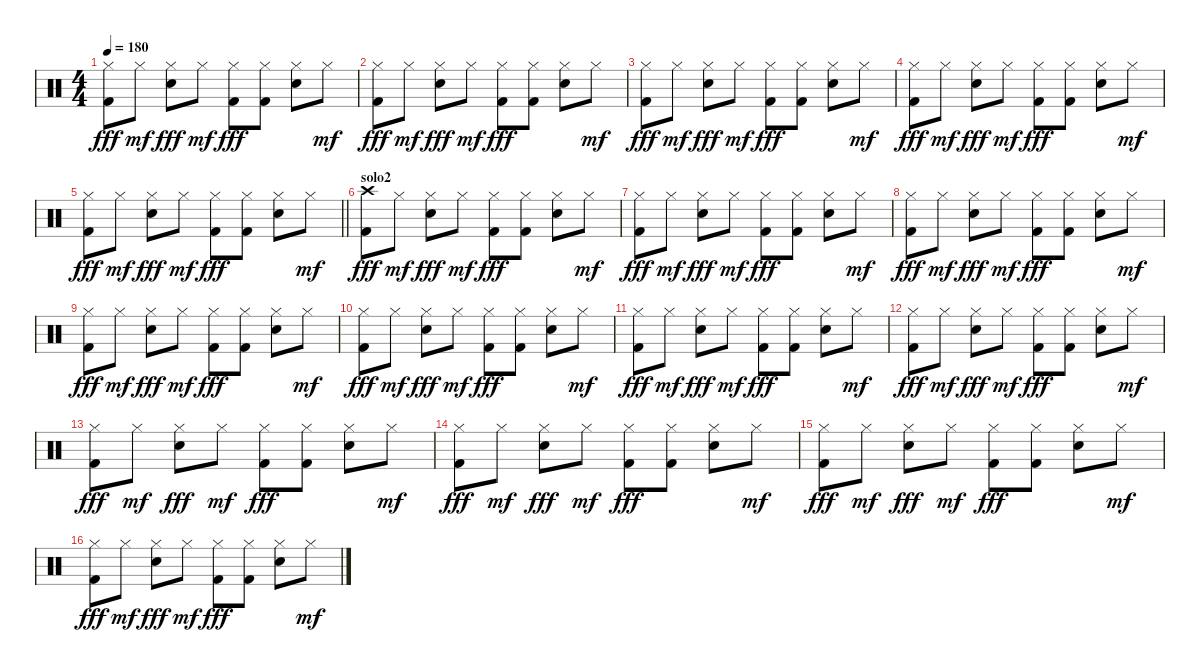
\track "" {instrument percussion}
\staff {score}
\articulation defaults
\ts (4 4)
\tempo 180
\clef neutral
\ks c
("Hi-Hat (closed)" "Kick (hit) 2").8{dy fff} "Hi-Hat (closed)".8{dy mf} ("Hi-Hat (closed)" "Snare (hit) 2").8{dy fff} "Hi-Hat (closed)".8{dy mf} ("Hi-Hat (closed)" "Kick (hit) 2").8{dy fff} ("Hi-Hat (closed)" "Kick (hit) 2").8 ("Hi-Hat (closed)" "Snare (hit) 2").8 "Hi-Hat (closed)".8{dy mf} |
("Hi-Hat (closed)" "Kick (hit) 2").8{dy fff} "Hi-Hat (closed)".8{dy mf} ("Hi-Hat (closed)" "Snare (hit) 2").8{dy fff} "Hi-Hat (closed)".8{dy mf} ("Hi-Hat (closed)" "Kick (hit) 2").8{dy fff} ("Hi-Hat (closed)" "Kick (hit) 2").8 ("Hi-Hat (closed)" "Snare (hit) 2").8 "Hi-Hat (closed)".8{dy mf} |
("Hi-Hat (closed)" "Kick (hit) 2").8{dy fff} "Hi-Hat (closed)".8{dy mf} ("Hi-Hat (closed)" "Snare (hit) 2").8{dy fff} "Hi-Hat (closed)".8{dy mf} ("Hi-Hat (closed)" "Kick (hit) 2").8{dy fff} ("Hi-Hat (closed)" "Kick (hit) 2").8 ("Hi-Hat (closed)" "Snare (hit) 2").8 "Hi-Hat (closed)".8{dy mf} |
("Hi-Hat (closed)" "Kick (hit) 2").8{dy fff} "Hi-Hat (closed)".8{dy mf} ("Hi-Hat (closed)" "Snare (hit) 2").8{dy fff} "Hi-Hat (closed)".8{dy mf} ("Hi-Hat (closed)" "Kick (hit) 2").8{dy fff} ("Hi-Hat (closed)" "Kick (hit) 2").8 ("Hi-Hat (closed)" "Snare (hit) 2").8 "Hi-Hat (closed)".8{dy mf} |
\barLineRight lightlight
("Hi-Hat (closed)" "Kick (hit) 2").8{dy fff} "Hi-Hat (closed)".8{dy mf} ("Hi-Hat (closed)" "Snare (hit) 2").8{dy fff} "Hi-Hat (closed)".8{dy mf} ("Hi-Hat (closed)" "Kick (hit) 2").8{dy fff} ("Hi-Hat (closed)" "Kick (hit) 2").8 ("Hi-Hat (closed)" "Snare (hit) 2").8 "Hi-Hat (closed)".8{dy mf} |
\section ("" "solo2")
("Crash high (hit)" "Kick (hit) 2").8{dy fff} "Hi-Hat (closed)".8{dy mf} ("Hi-Hat (closed)" "Snare (hit) 2").8{dy fff} "Hi-Hat (closed)".8{dy mf} ("Hi-Hat (closed)" "Kick (hit) 2").8{dy fff} ("Hi-Hat (closed)" "Kick (hit) 2").8 ("Hi-Hat (closed)" "Snare (hit) 2").8 "Hi-Hat (closed)".8{dy mf} |
("Hi-Hat (closed)" "Kick (hit) 2").8{dy fff} "Hi-Hat (closed)".8{dy mf} ("Hi-Hat (closed)" "Snare (hit) 2").8{dy fff} "Hi-Hat (closed)".8{dy mf} ("Hi-Hat (closed)" "Kick (hit) 2").8{dy fff} ("Hi-Hat (closed)" "Kick (hit) 2").8 ("Hi-Hat (closed)" "Snare (hit) 2").8 "Hi-Hat (closed)".8{dy mf} |
("Hi-Hat (closed)" "Kick (hit) 2").8{dy fff} "Hi-Hat (closed)".8{dy mf} ("Hi-Hat (closed)" "Snare (hit) 2").8{dy fff} "Hi-Hat (closed)".8{dy mf} ("Hi-Hat (closed)" "Kick (hit) 2").8{dy fff} ("Hi-Hat (closed)" "Kick (hit) 2").8 ("Hi-Hat (closed)" "Snare (hit) 2").8 "Hi-Hat (closed)".8{dy mf} |
("Hi-Hat (closed)" "Kick (hit) 2").8{dy fff} "Hi-Hat (closed)".8{dy mf} ("Hi-Hat (closed)" "Snare (hit) 2").8{dy fff} "Hi-Hat (closed)".8{dy mf} ("Hi-Hat (closed)" "Kick (hit) 2").8{dy fff} ("Hi-Hat (closed)" "Kick (hit) 2").8 ("Hi-Hat (closed)" "Snare (hit) 2").8 "Hi-Hat (closed)".8{dy mf} |
("Hi-Hat (closed)" "Kick (hit) 2").8{dy fff} "Hi-Hat (closed)".8{dy mf} ("Hi-Hat (closed)" "Snare (hit) 2").8{dy fff} "Hi-Hat (closed)".8{dy mf} ("Hi-Hat (closed)" "Kick (hit) 2").8{dy fff} ("Hi-Hat (closed)" "Kick (hit) 2").8 ("Hi-Hat (closed)" "Snare (hit) 2").8 "Hi-Hat (closed)".8{dy mf} |
("Hi-Hat (closed)" "Kick (hit) 2").8{dy fff} "Hi-Hat (closed)".8{dy mf} ("Hi-Hat (closed)" "Snare (hit) 2").8{dy fff} "Hi-Hat (closed)".8{dy mf} ("Hi-Hat (closed)" "Kick (hit) 2").8{dy fff} ("Hi-Hat (closed)" "Kick (hit) 2").8 ("Hi-Hat (closed)" "Snare (hit) 2").8 "Hi-Hat (closed)".8{dy mf} |
("Hi-Hat (closed)" "Kick (hit) 2").8{dy fff} "Hi-Hat (closed)".8{dy mf} ("Hi-Hat (closed)" "Snare (hit) 2").8{dy fff} "Hi-Hat (closed)".8{dy mf} ("Hi-Hat (closed)" "Kick (hit) 2").8{dy fff} ("Hi-Hat (closed)" "Kick (hit) 2").8 ("Hi-Hat (closed)" "Snare (hit) 2").8 "Hi-Hat (closed)".8{dy mf} |
("Hi-Hat (closed)" "Kick (hit) 2").8{dy fff} "Hi-Hat (closed)".8{dy mf} ("Hi-Hat (closed)" "Snare (hit) 2").8{dy fff} "Hi-Hat (closed)".8{dy mf} ("Hi-Hat (closed)" "Kick (hit) 2").8{dy fff} ("Hi-Hat (closed)" "Kick (hit) 2").8 ("Hi-Hat (closed)" "Snare (hit) 2").8 "Hi-Hat (closed)".8{dy mf} |
("Hi-Hat (closed)" "Kick (hit) 2").8{dy fff} "Hi-Hat (closed)".8{dy mf} ("Hi-Hat (closed)" "Snare (hit) 2").8{dy fff} "Hi-Hat (closed)".8{dy mf} ("Hi-Hat (closed)" "Kick (hit) 2").8{dy fff} ("Hi-Hat (closed)" "Kick (hit) 2").8 ("Hi-Hat (closed)" "Snare (hit) 2").8 "Hi-Hat (closed)".8{dy mf} |
("Hi-Hat (closed)" "Kick (hit) 2").8{dy fff} "Hi-Hat (closed)".8{dy mf} ("Hi-Hat (closed)" "Snare (hit) 2").8{dy fff} "Hi-Hat (closed)".8{dy mf} ("Hi-Hat (closed)" "Kick (hit) 2").8{dy fff} ("Hi-Hat (closed)" "Kick (hit) 2").8 ("Hi-Hat (closed)" "Snare (hit) 2").8 "Hi-Hat (closed)".8{dy mf} |
("Hi-Hat (closed)" "Kick (hit) 2").8{dy fff} "Hi-Hat (closed)".8{dy mf} ("Hi-Hat (closed)" "Snare (hit) 2").8{dy fff} "Hi-Hat (closed)".8{txt "" dy mf} ("Hi-Hat (closed)" "Kick (hit) 2").8{dy fff} ("Hi-Hat (closed)" "Kick (hit) 2").8 ("Hi-Hat (closed)" "Snare (hit) 2").8 "Hi-Hat (closed)".8{dy mf}
